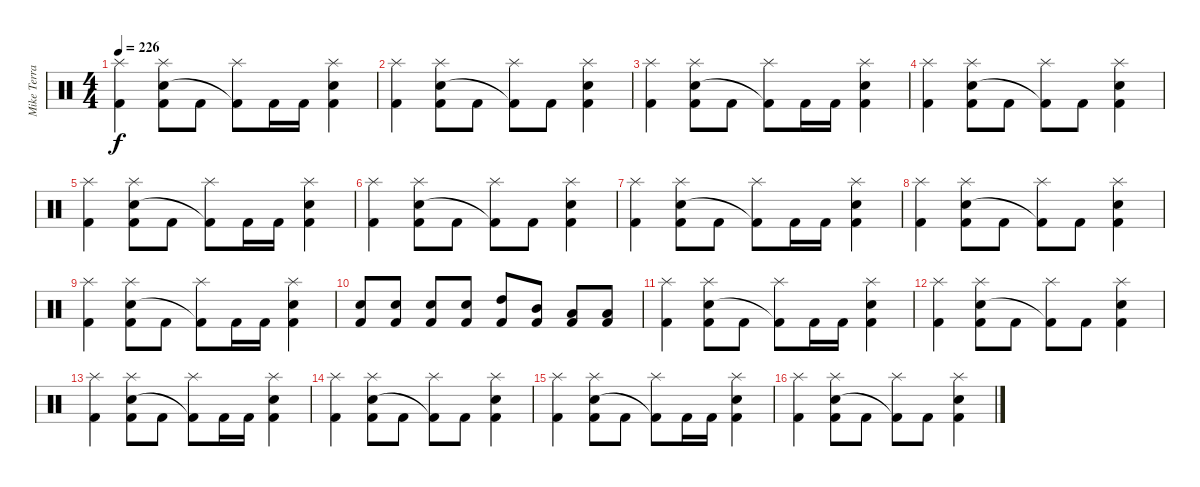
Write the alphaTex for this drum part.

\track ("Mike Terrana" "Mike Terra") {instrument percussion}
\staff {score}
\articulation defaults
\ts (4 4)
\tempo 226
\clef neutral
\ks c
("Splash (hit)" "Kick (hit) 2").4{dy f} ("Splash (hit)" "Snare (hit) 2" "Kick (hit) 2").8 "Kick (hit) 2".8 ("Splash (hit)" "Kick (hit) 2"{t}).8 "Kick (hit) 2".16 "Kick (hit) 2".16 ("Splash (hit)" "Snare (hit) 2" "Kick (hit) 2").4 |
("Splash (hit)" "Kick (hit) 2").4 ("Splash (hit)" "Snare (hit) 2" "Kick (hit) 2").8 "Kick (hit) 2".8 ("Splash (hit)" "Kick (hit) 2"{t}).8 "Kick (hit) 2".8 ("Splash (hit)" "Snare (hit) 2" "Kick (hit) 2").4 |
("Splash (hit)" "Kick (hit) 2").4 ("Splash (hit)" "Snare (hit) 2" "Kick (hit) 2").8 "Kick (hit) 2".8 ("Splash (hit)" "Kick (hit) 2"{t}).8 "Kick (hit) 2".16 "Kick (hit) 2".16 ("Splash (hit)" "Snare (hit) 2" "Kick (hit) 2").4 |
("Splash (hit)" "Kick (hit) 2").4 ("Splash (hit)" "Snare (hit) 2" "Kick (hit) 2").8 "Kick (hit) 2".8 ("Splash (hit)" "Kick (hit) 2"{t}).8 "Kick (hit) 2".8 ("Splash (hit)" "Snare (hit) 2" "Kick (hit) 2").4 |
("Splash (hit)" "Kick (hit) 2").4 ("Splash (hit)" "Snare (hit) 2" "Kick (hit) 2").8 "Kick (hit) 2".8 ("Splash (hit)" "Kick (hit) 2"{t}).8 "Kick (hit) 2".16 "Kick (hit) 2".16 ("Splash (hit)" "Snare (hit) 2" "Kick (hit) 2").4 |
("Splash (hit)" "Kick (hit) 2").4 ("Splash (hit)" "Snare (hit) 2" "Kick (hit) 2").8 "Kick (hit) 2".8 ("Splash (hit)" "Kick (hit) 2"{t}).8 "Kick (hit) 2".8 ("Splash (hit)" "Snare (hit) 2" "Kick (hit) 2").4 |
("Splash (hit)" "Kick (hit) 2").4 ("Splash (hit)" "Snare (hit) 2" "Kick (hit) 2").8 "Kick (hit) 2".8 ("Splash (hit)" "Kick (hit) 2"{t}).8 "Kick (hit) 2".16 "Kick (hit) 2".16 ("Splash (hit)" "Snare (hit) 2" "Kick (hit) 2").4 |
("Splash (hit)" "Kick (hit) 2").4 ("Splash (hit)" "Snare (hit) 2" "Kick (hit) 2").8 "Kick (hit) 2".8 ("Splash (hit)" "Kick (hit) 2"{t}).8 "Kick (hit) 2".8 ("Splash (hit)" "Snare (hit) 2" "Kick (hit) 2").4 |
("Splash (hit)" "Kick (hit) 2").4 ("Splash (hit)" "Snare (hit) 2" "Kick (hit) 2").8 "Kick (hit) 2".8 ("Splash (hit)" "Kick (hit) 2"{t}).8 "Kick (hit) 2".16 "Kick (hit) 2".16 ("Splash (hit)" "Snare (hit) 2" "Kick (hit) 2").4 |
("Snare (hit) 2" "Kick (hit) 2").8 ("Snare (hit) 2" "Kick (hit) 2").8 ("Snare (hit) 2" "Kick (hit) 2").8 ("Snare (hit) 2" "Kick (hit) 2").8 ("High Tom (hit)" "Kick (hit) 2").8 ("Mid Tom (hit)" "Kick (hit) 2").8 ("Low Tom (hit)" "Kick (hit) 2").8 ("Low Tom (hit)" "Kick (hit) 2").8 |
("Splash (hit)" "Kick (hit) 2").4 ("Splash (hit)" "Snare (hit) 2" "Kick (hit) 2").8 "Kick (hit) 2".8 ("Splash (hit)" "Kick (hit) 2"{t}).8 "Kick (hit) 2".16 "Kick (hit) 2".16 ("Splash (hit)" "Snare (hit) 2" "Kick (hit) 2").4 |
("Splash (hit)" "Kick (hit) 2").4 ("Splash (hit)" "Snare (hit) 2" "Kick (hit) 2").8 "Kick (hit) 2".8 ("Splash (hit)" "Kick (hit) 2"{t}).8 "Kick (hit) 2".8 ("Splash (hit)" "Snare (hit) 2" "Kick (hit) 2").4 |
("Splash (hit)" "Kick (hit) 2").4 ("Splash (hit)" "Snare (hit) 2" "Kick (hit) 2").8 "Kick (hit) 2".8 ("Splash (hit)" "Kick (hit) 2"{t}).8 "Kick (hit) 2".16 "Kick (hit) 2".16 ("Splash (hit)" "Snare (hit) 2" "Kick (hit) 2").4 |
("Splash (hit)" "Kick (hit) 2").4 ("Splash (hit)" "Snare (hit) 2" "Kick (hit) 2").8 "Kick (hit) 2".8 ("Splash (hit)" "Kick (hit) 2"{t}).8 "Kick (hit) 2".8 ("Splash (hit)" "Snare (hit) 2" "Kick (hit) 2").4 |
("Splash (hit)" "Kick (hit) 2").4 ("Splash (hit)" "Snare (hit) 2" "Kick (hit) 2").8 "Kick (hit) 2".8 ("Splash (hit)" "Kick (hit) 2"{t}).8 "Kick (hit) 2".16 "Kick (hit) 2".16 ("Splash (hit)" "Snare (hit) 2" "Kick (hit) 2").4 |
("Splash (hit)" "Kick (hit) 2").4 ("Splash (hit)" "Snare (hit) 2" "Kick (hit) 2").8 "Kick (hit) 2".8 ("Splash (hit)" "Kick (hit) 2"{t}).8 "Kick (hit) 2".8 ("Splash (hit)" "Snare (hit) 2" "Kick (hit) 2").4
